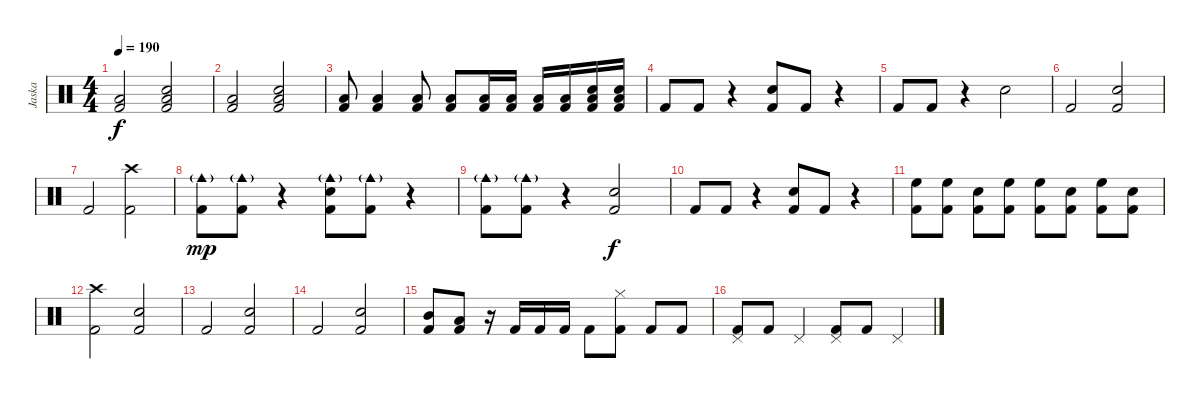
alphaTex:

\track ("Jaska" "Jaska") {instrument percussion}
\staff {score}
\articulation defaults
\ts (4 4)
\tempo 190
\clef neutral
\ks c
("Kick (hit) 2" "Low Tom (hit)").2{dy f} ("Kick (hit) 2" "Snare (hit) 2" "Low Tom (hit)").2 |
("Kick (hit) 2" "Low Tom (hit)").2 ("Kick (hit) 2" "Snare (hit) 2" "Low Tom (hit)").2 |
("Kick (hit) 2" "Low Tom (hit)").8 ("Kick (hit) 2" "Low Tom (hit)").4 ("Kick (hit) 2" "Low Tom (hit)").8 ("Kick (hit) 2" "Low Tom (hit)").8 ("Kick (hit) 2" "Low Tom (hit)").16 ("Kick (hit) 2" "Low Tom (hit)").16 ("Kick (hit) 2" "Low Tom (hit)").16 ("Kick (hit) 2" "Low Tom (hit)").16 ("Kick (hit) 2" "Snare (hit) 2" "Low Tom (hit)").16 ("Kick (hit) 2" "Snare (hit) 2" "Low Tom (hit)").16 |
"Kick (hit) 2".8 "Kick (hit) 2".8 r.4 ("Kick (hit) 2" "Snare (hit) 2").8 "Kick (hit) 2".8 r.4 |
"Kick (hit) 2".8 "Kick (hit) 2".8 r.4 "Snare (hit) 2".2 |
"Kick (hit) 2".2 ("Kick (hit) 2" "Snare (hit) 2").2 |
"Kick (hit) 2".2 ("Kick (hit) 2" "Crash high (hit)").2 |
("Kick (hit) 2" "Cowbell medium (hit)"{g}).8{dy mp} ("Kick (hit) 2" "Cowbell medium (hit)"{g}).8 r.4 ("Kick (hit) 2" "Cowbell medium (hit)"{g} "Snare (hit) 2").8 ("Kick (hit) 2" "Cowbell medium (hit)"{g}).8 r.4 |
("Kick (hit) 2" "Cowbell medium (hit)"{g}).8 ("Kick (hit) 2" "Cowbell medium (hit)"{g}).8 r.4 ("Kick (hit) 2" "Snare (hit) 2").2{dy f} |
"Kick (hit) 2".8 "Kick (hit) 2".8 r.4 ("Kick (hit) 2" "Snare (hit) 2").8 "Kick (hit) 2".8 r.4 |
("Kick (hit) 2" "High Floor Tom (hit)").8 ("Kick (hit) 2" "High Floor Tom (hit)").8 ("Kick (hit) 2" "Snare (hit) 2").8 ("Kick (hit) 2" "High Floor Tom (hit)").8 ("Kick (hit) 2" "High Floor Tom (hit)").8 ("Kick (hit) 2" "Snare (hit) 2").8 ("Kick (hit) 2" "High Floor Tom (hit)").8 ("Kick (hit) 2" "Snare (hit) 2").8 |
("Kick (hit) 2" "Crash high (hit)").2 ("Kick (hit) 2" "Snare (hit) 2").2 |
"Kick (hit) 2".2 ("Kick (hit) 2" "Snare (hit) 2").2 |
"Kick (hit) 2".2 ("Kick (hit) 2" "Snare (hit) 2").2 |
("Kick (hit) 2" "Mid Tom (hit)").8 ("Kick (hit) 2" "Low Tom (hit)").8 r.16 "Kick (hit) 2".16 "Kick (hit) 2".16 "Kick (hit) 2".16 "Kick (hit) 2".8 ("Kick (hit) 2" "Hi-Hat (closed)").8 "Kick (hit) 2".8 "Kick (hit) 2".8 |
("Kick (hit) 2" "Pedal Hi-Hat (hit)").8 "Kick (hit) 2".8 "Pedal Hi-Hat (hit)".4 ("Kick (hit) 2" "Pedal Hi-Hat (hit)").8 "Kick (hit) 2".8 "Pedal Hi-Hat (hit)".4
